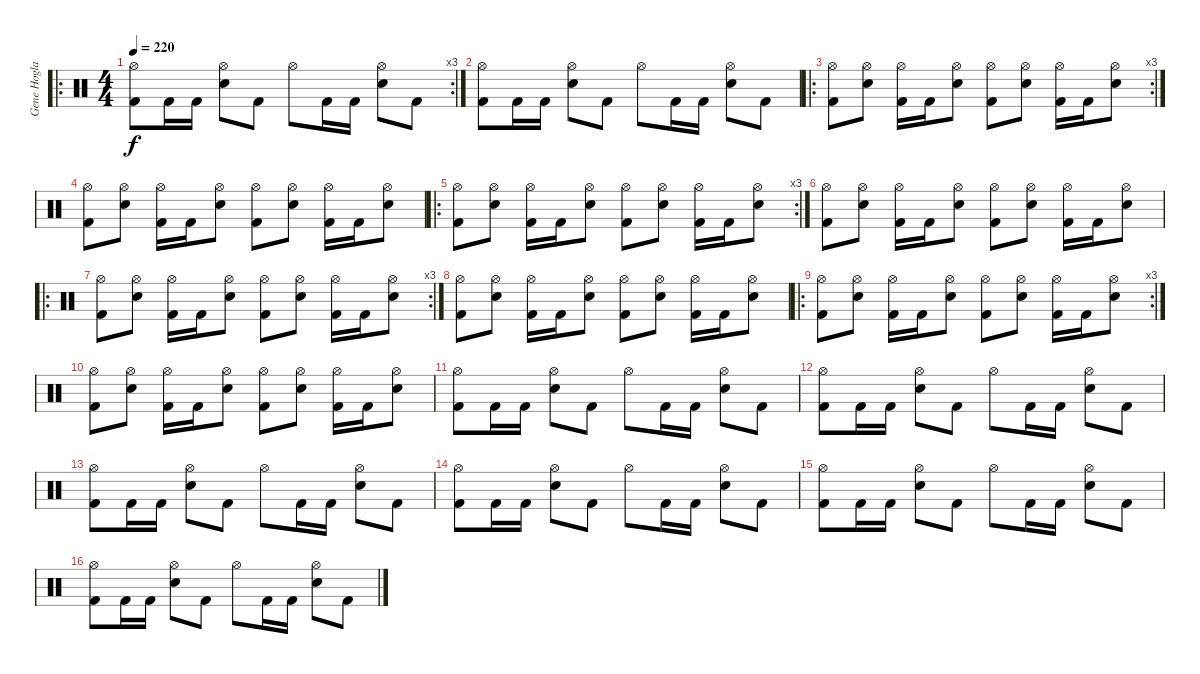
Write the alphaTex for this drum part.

\track ("Gene Hoglan" "Gene Hogla") {instrument percussion}
\staff {score}
\articulation defaults
\ro
\rc 3
\ts (4 4)
\tempo 220
\clef neutral
\ks c
("Hi-Hat (open)" "Kick (hit) 2").8{dy f} "Kick (hit) 2".16 "Kick (hit) 2".16 ("Hi-Hat (open)" "Electric Snare (hit)").8 "Kick (hit) 2".8 "Hi-Hat (open)".8 "Kick (hit) 2".16 "Kick (hit) 2".16 ("Hi-Hat (open)" "Electric Snare (hit)").8 "Kick (hit) 2".8 |
("Hi-Hat (open)" "Kick (hit) 2").8 "Kick (hit) 2".16 "Kick (hit) 2".16 ("Hi-Hat (open)" "Electric Snare (hit)").8 "Kick (hit) 2".8 "Hi-Hat (open)".8 "Kick (hit) 2".16 "Kick (hit) 2".16 ("Hi-Hat (open)" "Electric Snare (hit)").8 "Kick (hit) 2".8 |
\ro
\rc 3
("Hi-Hat (open)" "Kick (hit) 2").8 ("Hi-Hat (open)" "Electric Snare (hit)").8 ("Hi-Hat (open)" "Kick (hit) 2").16 "Kick (hit) 2".16 ("Hi-Hat (open)" "Electric Snare (hit)").8 ("Hi-Hat (open)" "Kick (hit) 2").8 ("Hi-Hat (open)" "Electric Snare (hit)").8 ("Hi-Hat (open)" "Kick (hit) 2").16 "Kick (hit) 2".16 ("Hi-Hat (open)" "Electric Snare (hit)").8 |
("Hi-Hat (open)" "Kick (hit) 2").8 ("Hi-Hat (open)" "Electric Snare (hit)").8 ("Hi-Hat (open)" "Kick (hit) 2").16 "Kick (hit) 2".16 ("Hi-Hat (open)" "Electric Snare (hit)").8 ("Hi-Hat (open)" "Kick (hit) 2").8 ("Hi-Hat (open)" "Electric Snare (hit)").8 ("Hi-Hat (open)" "Kick (hit) 2").16 "Kick (hit) 2".16 ("Hi-Hat (open)" "Electric Snare (hit)").8 |
\ro
\rc 3
("Hi-Hat (open)" "Kick (hit) 2").8 ("Hi-Hat (open)" "Electric Snare (hit)").8 ("Hi-Hat (open)" "Kick (hit) 2").16 "Kick (hit) 2".16 ("Hi-Hat (open)" "Electric Snare (hit)").8 ("Hi-Hat (open)" "Kick (hit) 2").8 ("Hi-Hat (open)" "Electric Snare (hit)").8 ("Hi-Hat (open)" "Kick (hit) 2").16 "Kick (hit) 2".16 ("Hi-Hat (open)" "Electric Snare (hit)").8 |
("Hi-Hat (open)" "Kick (hit) 2").8 ("Hi-Hat (open)" "Electric Snare (hit)").8 ("Hi-Hat (open)" "Kick (hit) 2").16 "Kick (hit) 2".16 ("Hi-Hat (open)" "Electric Snare (hit)").8 ("Hi-Hat (open)" "Kick (hit) 2").8 ("Hi-Hat (open)" "Electric Snare (hit)").8 ("Hi-Hat (open)" "Kick (hit) 2").16 "Kick (hit) 2".16 ("Hi-Hat (open)" "Electric Snare (hit)").8 |
\ro
\rc 3
("Hi-Hat (open)" "Kick (hit) 2").8 ("Hi-Hat (open)" "Electric Snare (hit)").8 ("Hi-Hat (open)" "Kick (hit) 2").16 "Kick (hit) 2".16 ("Hi-Hat (open)" "Electric Snare (hit)").8 ("Hi-Hat (open)" "Kick (hit) 2").8 ("Hi-Hat (open)" "Electric Snare (hit)").8 ("Hi-Hat (open)" "Kick (hit) 2").16 "Kick (hit) 2".16 ("Hi-Hat (open)" "Electric Snare (hit)").8 |
("Hi-Hat (open)" "Kick (hit) 2").8 ("Hi-Hat (open)" "Electric Snare (hit)").8 ("Hi-Hat (open)" "Kick (hit) 2").16 "Kick (hit) 2".16 ("Hi-Hat (open)" "Electric Snare (hit)").8 ("Hi-Hat (open)" "Kick (hit) 2").8 ("Hi-Hat (open)" "Electric Snare (hit)").8 ("Hi-Hat (open)" "Kick (hit) 2").16 "Kick (hit) 2".16 ("Hi-Hat (open)" "Electric Snare (hit)").8 |
\ro
\rc 3
("Hi-Hat (open)" "Kick (hit) 2").8 ("Hi-Hat (open)" "Electric Snare (hit)").8 ("Hi-Hat (open)" "Kick (hit) 2").16 "Kick (hit) 2".16 ("Hi-Hat (open)" "Electric Snare (hit)").8 ("Hi-Hat (open)" "Kick (hit) 2").8 ("Hi-Hat (open)" "Electric Snare (hit)").8 ("Hi-Hat (open)" "Kick (hit) 2").16 "Kick (hit) 2".16 ("Hi-Hat (open)" "Electric Snare (hit)").8 |
("Hi-Hat (open)" "Kick (hit) 2").8 ("Hi-Hat (open)" "Electric Snare (hit)").8 ("Hi-Hat (open)" "Kick (hit) 2").16 "Kick (hit) 2".16 ("Hi-Hat (open)" "Electric Snare (hit)").8 ("Hi-Hat (open)" "Kick (hit) 2").8 ("Hi-Hat (open)" "Electric Snare (hit)").8 ("Hi-Hat (open)" "Kick (hit) 2").16 "Kick (hit) 2".16 ("Hi-Hat (open)" "Electric Snare (hit)").8 |
("Hi-Hat (open)" "Kick (hit) 2").8 "Kick (hit) 2".16 "Kick (hit) 2".16 ("Hi-Hat (open)" "Electric Snare (hit)").8 "Kick (hit) 2".8 "Hi-Hat (open)".8 "Kick (hit) 2".16 "Kick (hit) 2".16 ("Hi-Hat (open)" "Electric Snare (hit)").8 "Kick (hit) 2".8 |
("Hi-Hat (open)" "Kick (hit) 2").8 "Kick (hit) 2".16 "Kick (hit) 2".16 ("Hi-Hat (open)" "Electric Snare (hit)").8 "Kick (hit) 2".8 "Hi-Hat (open)".8 "Kick (hit) 2".16 "Kick (hit) 2".16 ("Hi-Hat (open)" "Electric Snare (hit)").8 "Kick (hit) 2".8 |
("Hi-Hat (open)" "Kick (hit) 2").8 "Kick (hit) 2".16 "Kick (hit) 2".16 ("Hi-Hat (open)" "Electric Snare (hit)").8 "Kick (hit) 2".8 "Hi-Hat (open)".8 "Kick (hit) 2".16 "Kick (hit) 2".16 ("Hi-Hat (open)" "Electric Snare (hit)").8 "Kick (hit) 2".8 |
("Hi-Hat (open)" "Kick (hit) 2").8 "Kick (hit) 2".16 "Kick (hit) 2".16 ("Hi-Hat (open)" "Electric Snare (hit)").8 "Kick (hit) 2".8 "Hi-Hat (open)".8 "Kick (hit) 2".16 "Kick (hit) 2".16 ("Hi-Hat (open)" "Electric Snare (hit)").8 "Kick (hit) 2".8 |
("Hi-Hat (open)" "Kick (hit) 2").8 "Kick (hit) 2".16 "Kick (hit) 2".16 ("Hi-Hat (open)" "Electric Snare (hit)").8 "Kick (hit) 2".8 "Hi-Hat (open)".8 "Kick (hit) 2".16 "Kick (hit) 2".16 ("Hi-Hat (open)" "Electric Snare (hit)").8 "Kick (hit) 2".8 |
("Hi-Hat (open)" "Kick (hit) 2").8 "Kick (hit) 2".16 "Kick (hit) 2".16 ("Hi-Hat (open)" "Electric Snare (hit)").8 "Kick (hit) 2".8 "Hi-Hat (open)".8 "Kick (hit) 2".16 "Kick (hit) 2".16 ("Hi-Hat (open)" "Electric Snare (hit)").8 "Kick (hit) 2".8
